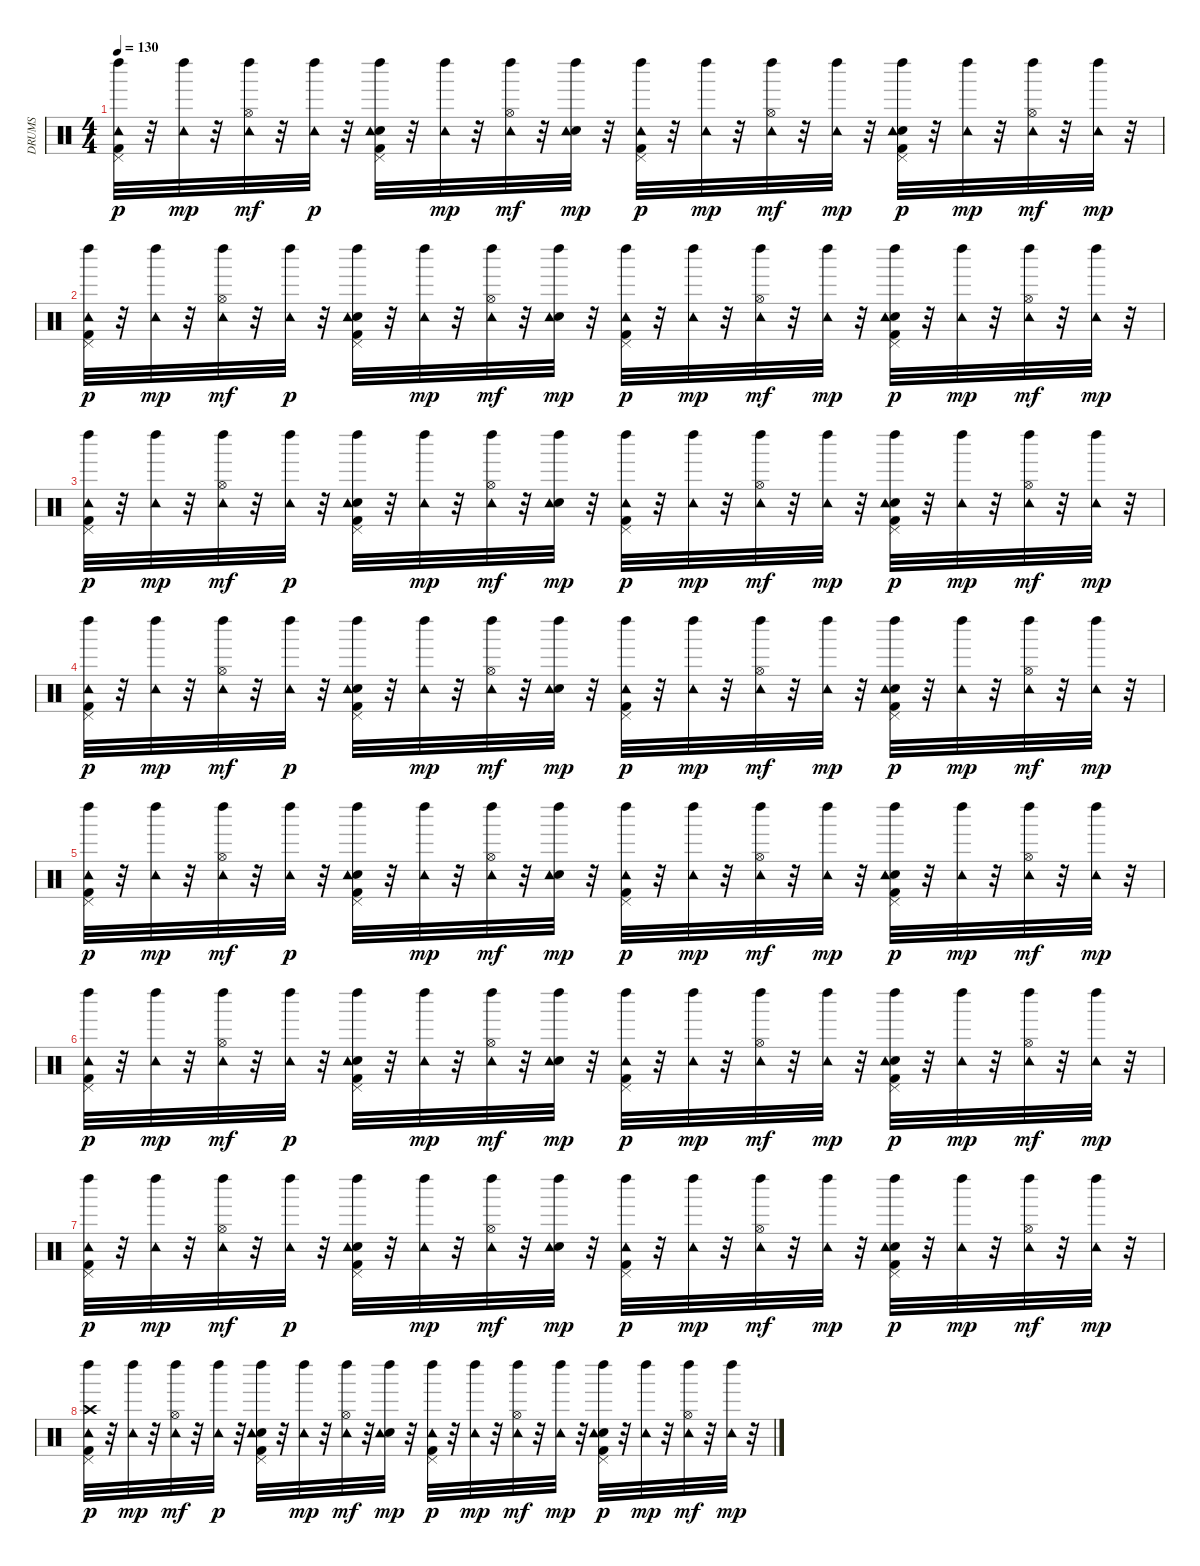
\track ("DRUMS" "DRUMS") {instrument percussion}
\staff {score}
\articulation defaults
\ts (4 4)
\tempo 130
\clef neutral
\ks c
("Kick (hit) 2" "Pedal Hi-Hat (hit)" "Left Maraca (hit)" "Tambourine (hit)").32{dy p} r.32 ("Left Maraca (hit)" "Tambourine (hit)").32{dy mp} r.32 ("Hi-Hat (open)" "Left Maraca (hit)" "Tambourine (hit)").32{dy mf} r.32 ("Left Maraca (hit)" "Tambourine (hit)").32{dy p} r.32 ("Kick (hit) 2" "Electric Snare (hit)" "Pedal Hi-Hat (hit)" "Left Maraca (hit)" "Tambourine (hit)").32 r.32 ("Left Maraca (hit)" "Tambourine (hit)").32{dy mp} r.32 ("Hi-Hat (open)" "Left Maraca (hit)" "Tambourine (hit)").32{dy mf} r.32 ("Electric Snare (hit)" "Left Maraca (hit)" "Tambourine (hit)").32{dy mp} r.32 ("Kick (hit) 2" "Pedal Hi-Hat (hit)" "Left Maraca (hit)" "Tambourine (hit)").32{dy p} r.32 ("Left Maraca (hit)" "Tambourine (hit)").32{dy mp} r.32 ("Hi-Hat (open)" "Left Maraca (hit)" "Tambourine (hit)").32{dy mf} r.32 ("Left Maraca (hit)" "Tambourine (hit)").32{dy mp} r.32 ("Kick (hit) 2" "Electric Snare (hit)" "Pedal Hi-Hat (hit)" "Left Maraca (hit)" "Tambourine (hit)").32{dy p} r.32 ("Left Maraca (hit)" "Tambourine (hit)").32{dy mp} r.32 ("Hi-Hat (open)" "Left Maraca (hit)" "Tambourine (hit)").32{dy mf} r.32 ("Left Maraca (hit)" "Tambourine (hit)").32{dy mp} r.32 |
("Kick (hit) 2" "Pedal Hi-Hat (hit)" "Left Maraca (hit)" "Tambourine (hit)").32{dy p} r.32 ("Left Maraca (hit)" "Tambourine (hit)").32{dy mp} r.32 ("Hi-Hat (open)" "Left Maraca (hit)" "Tambourine (hit)").32{dy mf} r.32 ("Left Maraca (hit)" "Tambourine (hit)").32{dy p} r.32 ("Kick (hit) 2" "Electric Snare (hit)" "Pedal Hi-Hat (hit)" "Left Maraca (hit)" "Tambourine (hit)").32 r.32 ("Left Maraca (hit)" "Tambourine (hit)").32{dy mp} r.32 ("Hi-Hat (open)" "Left Maraca (hit)" "Tambourine (hit)").32{dy mf} r.32 ("Electric Snare (hit)" "Left Maraca (hit)" "Tambourine (hit)").32{dy mp} r.32 ("Kick (hit) 2" "Pedal Hi-Hat (hit)" "Left Maraca (hit)" "Tambourine (hit)").32{dy p} r.32 ("Left Maraca (hit)" "Tambourine (hit)").32{dy mp} r.32 ("Hi-Hat (open)" "Left Maraca (hit)" "Tambourine (hit)").32{dy mf} r.32 ("Left Maraca (hit)" "Tambourine (hit)").32{dy mp} r.32 ("Kick (hit) 2" "Electric Snare (hit)" "Pedal Hi-Hat (hit)" "Left Maraca (hit)" "Tambourine (hit)").32{dy p} r.32 ("Left Maraca (hit)" "Tambourine (hit)").32{dy mp} r.32 ("Hi-Hat (open)" "Left Maraca (hit)" "Tambourine (hit)").32{dy mf} r.32 ("Left Maraca (hit)" "Tambourine (hit)").32{dy mp} r.32 |
("Kick (hit) 2" "Pedal Hi-Hat (hit)" "Left Maraca (hit)" "Tambourine (hit)").32{dy p} r.32 ("Left Maraca (hit)" "Tambourine (hit)").32{dy mp} r.32 ("Hi-Hat (open)" "Left Maraca (hit)" "Tambourine (hit)").32{dy mf} r.32 ("Left Maraca (hit)" "Tambourine (hit)").32{dy p} r.32 ("Kick (hit) 2" "Electric Snare (hit)" "Pedal Hi-Hat (hit)" "Left Maraca (hit)" "Tambourine (hit)").32 r.32 ("Left Maraca (hit)" "Tambourine (hit)").32{dy mp} r.32 ("Hi-Hat (open)" "Left Maraca (hit)" "Tambourine (hit)").32{dy mf} r.32 ("Electric Snare (hit)" "Left Maraca (hit)" "Tambourine (hit)").32{dy mp} r.32 ("Kick (hit) 2" "Pedal Hi-Hat (hit)" "Left Maraca (hit)" "Tambourine (hit)").32{dy p} r.32 ("Left Maraca (hit)" "Tambourine (hit)").32{dy mp} r.32 ("Hi-Hat (open)" "Left Maraca (hit)" "Tambourine (hit)").32{dy mf} r.32 ("Left Maraca (hit)" "Tambourine (hit)").32{dy mp} r.32 ("Kick (hit) 2" "Electric Snare (hit)" "Pedal Hi-Hat (hit)" "Left Maraca (hit)" "Tambourine (hit)").32{dy p} r.32 ("Left Maraca (hit)" "Tambourine (hit)").32{dy mp} r.32 ("Hi-Hat (open)" "Left Maraca (hit)" "Tambourine (hit)").32{dy mf} r.32 ("Left Maraca (hit)" "Tambourine (hit)").32{dy mp} r.32 |
("Kick (hit) 2" "Pedal Hi-Hat (hit)" "Left Maraca (hit)" "Tambourine (hit)").32{dy p} r.32 ("Left Maraca (hit)" "Tambourine (hit)").32{dy mp} r.32 ("Hi-Hat (open)" "Left Maraca (hit)" "Tambourine (hit)").32{dy mf} r.32 ("Left Maraca (hit)" "Tambourine (hit)").32{dy p} r.32 ("Kick (hit) 2" "Electric Snare (hit)" "Pedal Hi-Hat (hit)" "Left Maraca (hit)" "Tambourine (hit)").32 r.32 ("Left Maraca (hit)" "Tambourine (hit)").32{dy mp} r.32 ("Hi-Hat (open)" "Left Maraca (hit)" "Tambourine (hit)").32{dy mf} r.32 ("Electric Snare (hit)" "Left Maraca (hit)" "Tambourine (hit)").32{dy mp} r.32 ("Kick (hit) 2" "Pedal Hi-Hat (hit)" "Left Maraca (hit)" "Tambourine (hit)").32{dy p} r.32 ("Left Maraca (hit)" "Tambourine (hit)").32{dy mp} r.32 ("Hi-Hat (open)" "Left Maraca (hit)" "Tambourine (hit)").32{dy mf} r.32 ("Left Maraca (hit)" "Tambourine (hit)").32{dy mp} r.32 ("Kick (hit) 2" "Electric Snare (hit)" "Pedal Hi-Hat (hit)" "Left Maraca (hit)" "Tambourine (hit)").32{dy p} r.32 ("Left Maraca (hit)" "Tambourine (hit)").32{dy mp} r.32 ("Hi-Hat (open)" "Left Maraca (hit)" "Tambourine (hit)").32{dy mf} r.32 ("Left Maraca (hit)" "Tambourine (hit)").32{dy mp} r.32 |
("Kick (hit) 2" "Pedal Hi-Hat (hit)" "Left Maraca (hit)" "Tambourine (hit)").32{dy p} r.32 ("Left Maraca (hit)" "Tambourine (hit)").32{dy mp} r.32 ("Hi-Hat (open)" "Left Maraca (hit)" "Tambourine (hit)").32{dy mf} r.32 ("Left Maraca (hit)" "Tambourine (hit)").32{dy p} r.32 ("Kick (hit) 2" "Electric Snare (hit)" "Pedal Hi-Hat (hit)" "Left Maraca (hit)" "Tambourine (hit)").32 r.32 ("Left Maraca (hit)" "Tambourine (hit)").32{dy mp} r.32 ("Hi-Hat (open)" "Left Maraca (hit)" "Tambourine (hit)").32{dy mf} r.32 ("Electric Snare (hit)" "Left Maraca (hit)" "Tambourine (hit)").32{dy mp} r.32 ("Kick (hit) 2" "Pedal Hi-Hat (hit)" "Left Maraca (hit)" "Tambourine (hit)").32{dy p} r.32 ("Left Maraca (hit)" "Tambourine (hit)").32{dy mp} r.32 ("Hi-Hat (open)" "Left Maraca (hit)" "Tambourine (hit)").32{dy mf} r.32 ("Left Maraca (hit)" "Tambourine (hit)").32{dy mp} r.32 ("Kick (hit) 2" "Electric Snare (hit)" "Pedal Hi-Hat (hit)" "Left Maraca (hit)" "Tambourine (hit)").32{dy p} r.32 ("Left Maraca (hit)" "Tambourine (hit)").32{dy mp} r.32 ("Hi-Hat (open)" "Left Maraca (hit)" "Tambourine (hit)").32{dy mf} r.32 ("Left Maraca (hit)" "Tambourine (hit)").32{dy mp} r.32 |
("Kick (hit) 2" "Pedal Hi-Hat (hit)" "Left Maraca (hit)" "Tambourine (hit)").32{dy p} r.32 ("Left Maraca (hit)" "Tambourine (hit)").32{dy mp} r.32 ("Hi-Hat (open)" "Left Maraca (hit)" "Tambourine (hit)").32{dy mf} r.32 ("Left Maraca (hit)" "Tambourine (hit)").32{dy p} r.32 ("Kick (hit) 2" "Electric Snare (hit)" "Pedal Hi-Hat (hit)" "Left Maraca (hit)" "Tambourine (hit)").32 r.32 ("Left Maraca (hit)" "Tambourine (hit)").32{dy mp} r.32 ("Hi-Hat (open)" "Left Maraca (hit)" "Tambourine (hit)").32{dy mf} r.32 ("Electric Snare (hit)" "Left Maraca (hit)" "Tambourine (hit)").32{dy mp} r.32 ("Kick (hit) 2" "Pedal Hi-Hat (hit)" "Left Maraca (hit)" "Tambourine (hit)").32{dy p} r.32 ("Left Maraca (hit)" "Tambourine (hit)").32{dy mp} r.32 ("Hi-Hat (open)" "Left Maraca (hit)" "Tambourine (hit)").32{dy mf} r.32 ("Left Maraca (hit)" "Tambourine (hit)").32{dy mp} r.32 ("Kick (hit) 2" "Electric Snare (hit)" "Pedal Hi-Hat (hit)" "Left Maraca (hit)" "Tambourine (hit)").32{dy p} r.32 ("Left Maraca (hit)" "Tambourine (hit)").32{dy mp} r.32 ("Hi-Hat (open)" "Left Maraca (hit)" "Tambourine (hit)").32{dy mf} r.32 ("Left Maraca (hit)" "Tambourine (hit)").32{dy mp} r.32 |
("Kick (hit) 2" "Pedal Hi-Hat (hit)" "Left Maraca (hit)" "Tambourine (hit)").32{dy p} r.32 ("Left Maraca (hit)" "Tambourine (hit)").32{dy mp} r.32 ("Hi-Hat (open)" "Left Maraca (hit)" "Tambourine (hit)").32{dy mf} r.32 ("Left Maraca (hit)" "Tambourine (hit)").32{dy p} r.32 ("Kick (hit) 2" "Electric Snare (hit)" "Pedal Hi-Hat (hit)" "Left Maraca (hit)" "Tambourine (hit)").32 r.32 ("Left Maraca (hit)" "Tambourine (hit)").32{dy mp} r.32 ("Hi-Hat (open)" "Left Maraca (hit)" "Tambourine (hit)").32{dy mf} r.32 ("Electric Snare (hit)" "Left Maraca (hit)" "Tambourine (hit)").32{dy mp} r.32 ("Kick (hit) 2" "Pedal Hi-Hat (hit)" "Left Maraca (hit)" "Tambourine (hit)").32{dy p} r.32 ("Left Maraca (hit)" "Tambourine (hit)").32{dy mp} r.32 ("Hi-Hat (open)" "Left Maraca (hit)" "Tambourine (hit)").32{dy mf} r.32 ("Left Maraca (hit)" "Tambourine (hit)").32{dy mp} r.32 ("Kick (hit) 2" "Electric Snare (hit)" "Pedal Hi-Hat (hit)" "Left Maraca (hit)" "Tambourine (hit)").32{dy p} r.32 ("Left Maraca (hit)" "Tambourine (hit)").32{dy mp} r.32 ("Hi-Hat (open)" "Left Maraca (hit)" "Tambourine (hit)").32{dy mf} r.32 ("Left Maraca (hit)" "Tambourine (hit)").32{dy mp} r.32 |
("Kick (hit) 2" "Pedal Hi-Hat (hit)" "Left Maraca (hit)" "Crash high (hit)" "Tambourine (hit)").32{dy p} r.32 ("Left Maraca (hit)" "Tambourine (hit)").32{dy mp} r.32 ("Hi-Hat (open)" "Left Maraca (hit)" "Tambourine (hit)").32{dy mf} r.32 ("Left Maraca (hit)" "Tambourine (hit)").32{dy p} r.32 ("Kick (hit) 2" "Electric Snare (hit)" "Pedal Hi-Hat (hit)" "Left Maraca (hit)" "Tambourine (hit)").32 r.32 ("Left Maraca (hit)" "Tambourine (hit)").32{dy mp} r.32 ("Hi-Hat (open)" "Left Maraca (hit)" "Tambourine (hit)").32{dy mf} r.32 ("Electric Snare (hit)" "Left Maraca (hit)" "Tambourine (hit)").32{dy mp} r.32 ("Kick (hit) 2" "Pedal Hi-Hat (hit)" "Left Maraca (hit)" "Tambourine (hit)").32{dy p} r.32 ("Left Maraca (hit)" "Tambourine (hit)").32{dy mp} r.32 ("Hi-Hat (open)" "Left Maraca (hit)" "Tambourine (hit)").32{dy mf} r.32 ("Left Maraca (hit)" "Tambourine (hit)").32{dy mp} r.32 ("Kick (hit) 2" "Electric Snare (hit)" "Pedal Hi-Hat (hit)" "Left Maraca (hit)" "Tambourine (hit)").32{dy p} r.32 ("Left Maraca (hit)" "Tambourine (hit)").32{dy mp} r.32 ("Hi-Hat (open)" "Left Maraca (hit)" "Tambourine (hit)").32{dy mf} r.32 ("Left Maraca (hit)" "Tambourine (hit)").32{dy mp} r.32
